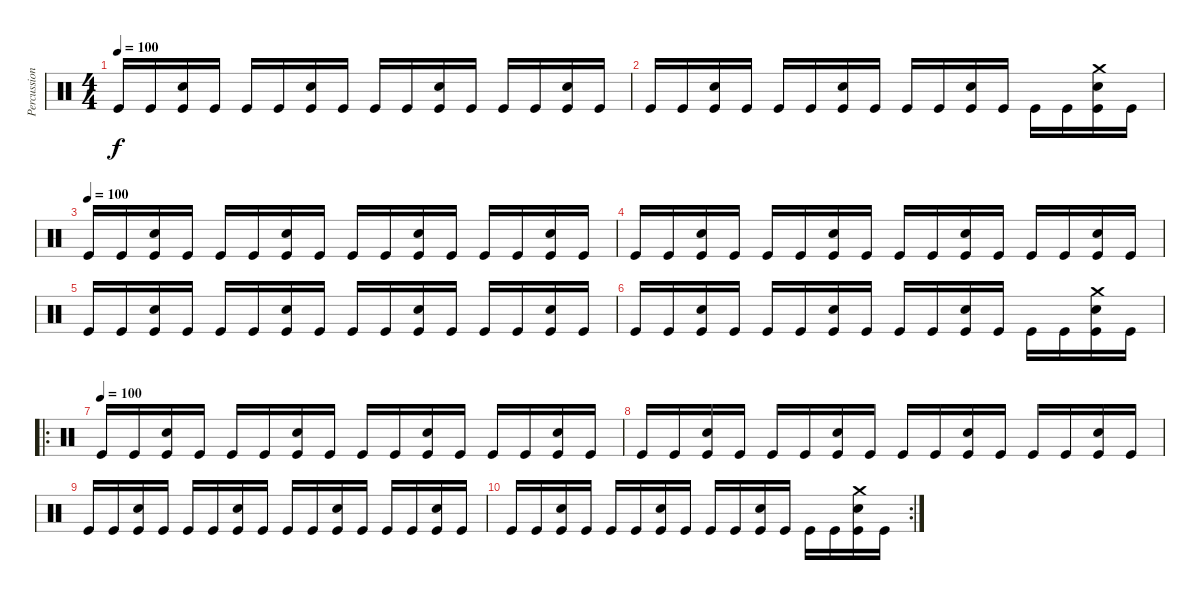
\track ("Percussions" "Percussion") {instrument percussion}
\staff {score}
\articulation defaults
\ts (4 4)
\tempo 100
\clef neutral
\ks c "Kick (hit)".16{dy f} "Kick (hit)".16
("Kick (hit)" "Electric Snare (hit)").16 "Kick (hit)".16 "Kick (hit)".16 "Kick (hit)".16 ("Kick (hit)" "Electric Snare (hit)").16 "Kick (hit)".16 "Kick (hit)".16 "Kick (hit)".16 ("Kick (hit)" "Electric Snare (hit)").16 "Kick (hit)".16 "Kick (hit)".16 "Kick (hit)".16 ("Kick (hit)" "Electric Snare (hit)").16 "Kick (hit)".16 |
"Kick (hit)".16 "Kick (hit)".16 ("Kick (hit)" "Electric Snare (hit)").16 "Kick (hit)".16 "Kick (hit)".16 "Kick (hit)".16 ("Kick (hit)" "Electric Snare (hit)").16 "Kick (hit)".16 "Kick (hit)".16 "Kick (hit)".16 ("Kick (hit)" "Electric Snare (hit)").16 "Kick (hit)".16 "Kick (hit)".16 "Kick (hit)".16 ("Kick (hit)" "Crash medium (hit)" "Electric Snare (hit)").16 "Kick (hit)".16 |
\tempo (100)
"Kick (hit)".16 "Kick (hit)".16 ("Kick (hit)" "Electric Snare (hit)").16 "Kick (hit)".16 "Kick (hit)".16 "Kick (hit)".16 ("Kick (hit)" "Electric Snare (hit)").16 "Kick (hit)".16 "Kick (hit)".16 "Kick (hit)".16 ("Kick (hit)" "Electric Snare (hit)").16 "Kick (hit)".16 "Kick (hit)".16 "Kick (hit)".16 ("Kick (hit)" "Electric Snare (hit)").16 "Kick (hit)".16 |
"Kick (hit)".16 "Kick (hit)".16 ("Kick (hit)" "Electric Snare (hit)").16 "Kick (hit)".16 "Kick (hit)".16 "Kick (hit)".16 ("Kick (hit)" "Electric Snare (hit)").16 "Kick (hit)".16 "Kick (hit)".16 "Kick (hit)".16 ("Kick (hit)" "Electric Snare (hit)").16 "Kick (hit)".16 "Kick (hit)".16 "Kick (hit)".16 ("Kick (hit)" "Electric Snare (hit)").16 "Kick (hit)".16 |
"Kick (hit)".16 "Kick (hit)".16 ("Kick (hit)" "Electric Snare (hit)").16 "Kick (hit)".16 "Kick (hit)".16 "Kick (hit)".16 ("Kick (hit)" "Electric Snare (hit)").16 "Kick (hit)".16 "Kick (hit)".16 "Kick (hit)".16 ("Kick (hit)" "Electric Snare (hit)").16 "Kick (hit)".16 "Kick (hit)".16 "Kick (hit)".16 ("Kick (hit)" "Electric Snare (hit)").16 "Kick (hit)".16 |
"Kick (hit)".16 "Kick (hit)".16 ("Kick (hit)" "Electric Snare (hit)").16 "Kick (hit)".16 "Kick (hit)".16 "Kick (hit)".16 ("Kick (hit)" "Electric Snare (hit)").16 "Kick (hit)".16 "Kick (hit)".16 "Kick (hit)".16 ("Kick (hit)" "Electric Snare (hit)").16 "Kick (hit)".16 "Kick (hit)".16 "Kick (hit)".16 ("Kick (hit)" "Crash medium (hit)" "Electric Snare (hit)").16 "Kick (hit)".16 |
\ro
\tempo (100)
"Kick (hit)".16 "Kick (hit)".16 ("Kick (hit)" "Electric Snare (hit)").16 "Kick (hit)".16 "Kick (hit)".16 "Kick (hit)".16 ("Kick (hit)" "Electric Snare (hit)").16 "Kick (hit)".16 "Kick (hit)".16 "Kick (hit)".16 ("Kick (hit)" "Electric Snare (hit)").16 "Kick (hit)".16 "Kick (hit)".16 "Kick (hit)".16 ("Kick (hit)" "Electric Snare (hit)").16 "Kick (hit)".16 |
"Kick (hit)".16 "Kick (hit)".16 ("Kick (hit)" "Electric Snare (hit)").16 "Kick (hit)".16 "Kick (hit)".16 "Kick (hit)".16 ("Kick (hit)" "Electric Snare (hit)").16 "Kick (hit)".16 "Kick (hit)".16 "Kick (hit)".16 ("Kick (hit)" "Electric Snare (hit)").16 "Kick (hit)".16 "Kick (hit)".16 "Kick (hit)".16 ("Kick (hit)" "Electric Snare (hit)").16 "Kick (hit)".16 |
"Kick (hit)".16 "Kick (hit)".16 ("Kick (hit)" "Electric Snare (hit)").16 "Kick (hit)".16 "Kick (hit)".16 "Kick (hit)".16 ("Kick (hit)" "Electric Snare (hit)").16 "Kick (hit)".16 "Kick (hit)".16 "Kick (hit)".16 ("Kick (hit)" "Electric Snare (hit)").16 "Kick (hit)".16 "Kick (hit)".16 "Kick (hit)".16 ("Kick (hit)" "Electric Snare (hit)").16 "Kick (hit)".16 |
\rc 2 "Kick (hit)".16 "Kick (hit)".16
("Kick (hit)" "Electric Snare (hit)").16 "Kick (hit)".16 "Kick (hit)".16 "Kick (hit)".16 ("Kick (hit)" "Electric Snare (hit)").16 "Kick (hit)".16 "Kick (hit)".16 "Kick (hit)".16 ("Kick (hit)" "Electric Snare (hit)").16 "Kick (hit)".16 "Kick (hit)".16 "Kick (hit)".16 ("Kick (hit)" "Crash medium (hit)" "Electric Snare (hit)").16 "Kick (hit)".16
